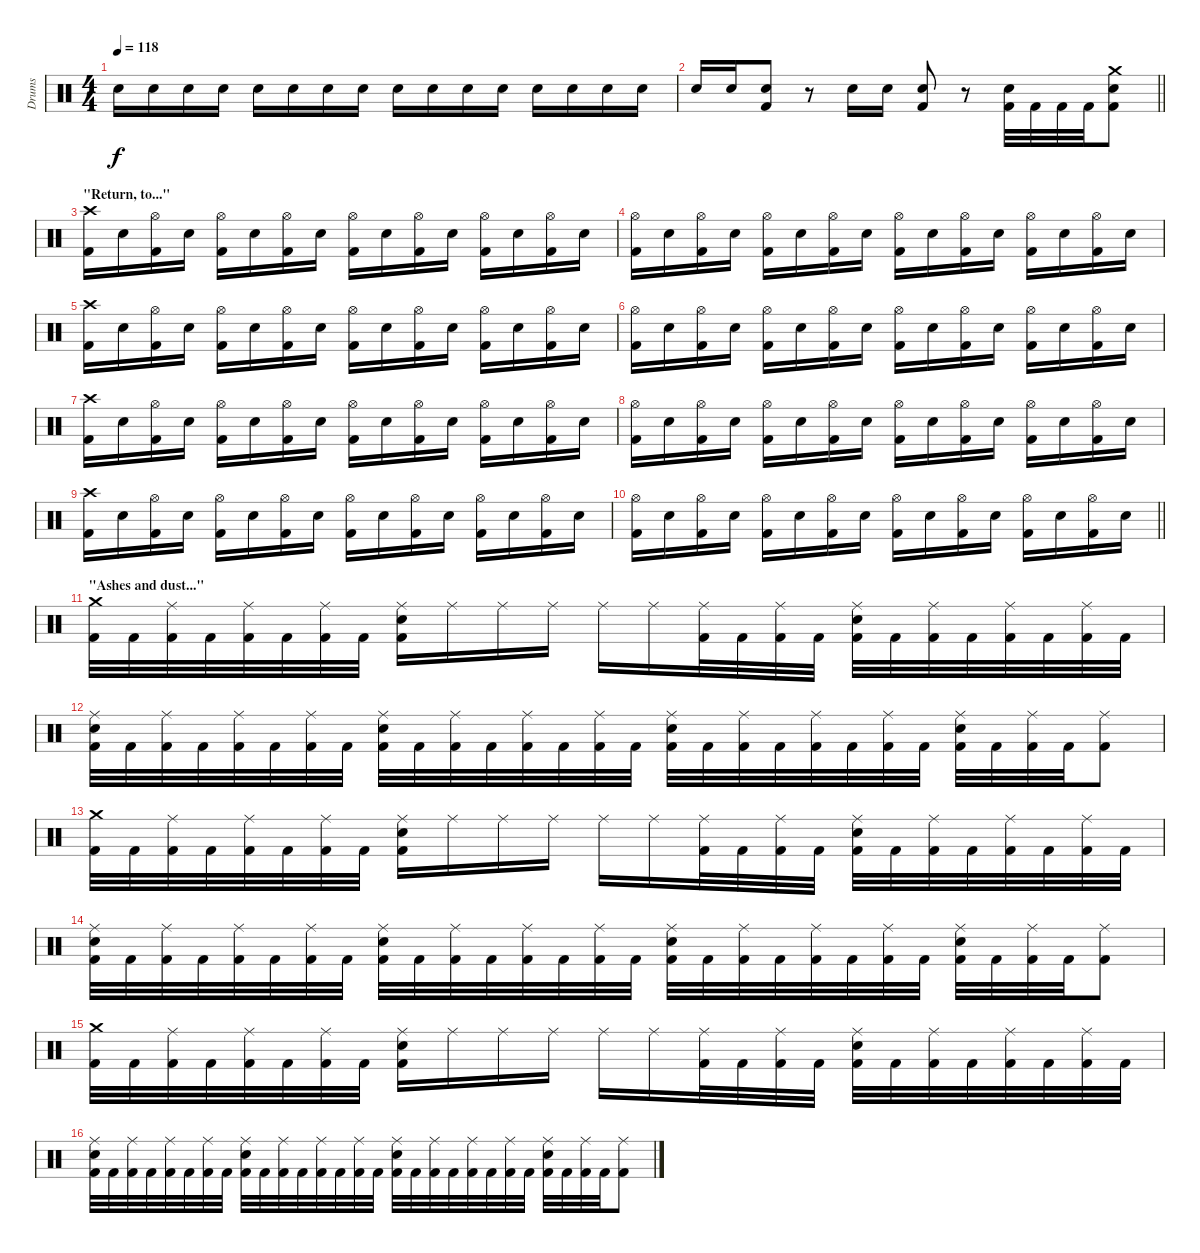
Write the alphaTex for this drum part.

\track ("Drums" "Drums") {instrument percussion}
\staff {score}
\articulation defaults
\ts (4 4)
\section ("" "")
\tempo 118
\clef neutral
\ks c "Electric Snare (hit)".16{dy f} "Electric Snare (hit)".16 "Electric Snare (hit)".16 "Electric Snare (hit)".16 "Electric Snare (hit)".16 "Electric Snare (hit)".16 "Electric Snare (hit)".16 "Electric Snare (hit)".16 "Electric Snare (hit)".16 "Electric Snare (hit)".16 "Electric Snare (hit)".16 "Electric Snare (hit)".16 "Electric Snare (hit)".16 "Electric Snare (hit)".16 "Electric Snare (hit)".16 "Electric Snare (hit)".16
|
\barLineRight lightlight "Electric Snare (hit)".16 "Electric Snare (hit)".16
("Electric Snare (hit)" "Kick (hit) 2").8 r.8 "Electric Snare (hit)".16 "Electric Snare (hit)".16 ("Electric Snare (hit)" "Kick (hit) 2").8 r.8 ("Electric Snare (hit)" "Kick (hit) 2").32 "Kick (hit) 2".32 "Kick (hit) 2".32 "Kick (hit) 2".32 ("Crash medium (hit)" "Electric Snare (hit)" "Kick (hit) 2").8 |
\section ("" "\"Return, to...\"")
("Crash high (hit)" "Kick (hit) 2").16 "Electric Snare (hit)".16 ("Hi-Hat (open)" "Kick (hit) 2").16 "Electric Snare (hit)".16 ("Hi-Hat (open)" "Kick (hit) 2").16 "Electric Snare (hit)".16 ("Hi-Hat (open)" "Kick (hit) 2").16 "Electric Snare (hit)".16 ("Hi-Hat (open)" "Kick (hit) 2").16 "Electric Snare (hit)".16 ("Hi-Hat (open)" "Kick (hit) 2").16 "Electric Snare (hit)".16 ("Hi-Hat (open)" "Kick (hit) 2").16 "Electric Snare (hit)".16 ("Hi-Hat (open)" "Kick (hit) 2").16 "Electric Snare (hit)".16 |
("Hi-Hat (open)" "Kick (hit) 2").16 "Electric Snare (hit)".16 ("Hi-Hat (open)" "Kick (hit) 2").16 "Electric Snare (hit)".16 ("Hi-Hat (open)" "Kick (hit) 2").16 "Electric Snare (hit)".16 ("Hi-Hat (open)" "Kick (hit) 2").16 "Electric Snare (hit)".16 ("Hi-Hat (open)" "Kick (hit) 2").16 "Electric Snare (hit)".16 ("Hi-Hat (open)" "Kick (hit) 2").16 "Electric Snare (hit)".16 ("Hi-Hat (open)" "Kick (hit) 2").16 "Electric Snare (hit)".16 ("Hi-Hat (open)" "Kick (hit) 2").16 "Electric Snare (hit)".16 |
("Crash high (hit)" "Kick (hit) 2").16 "Electric Snare (hit)".16 ("Hi-Hat (open)" "Kick (hit) 2").16 "Electric Snare (hit)".16 ("Hi-Hat (open)" "Kick (hit) 2").16 "Electric Snare (hit)".16 ("Hi-Hat (open)" "Kick (hit) 2").16 "Electric Snare (hit)".16 ("Hi-Hat (open)" "Kick (hit) 2").16 "Electric Snare (hit)".16 ("Hi-Hat (open)" "Kick (hit) 2").16 "Electric Snare (hit)".16 ("Hi-Hat (open)" "Kick (hit) 2").16 "Electric Snare (hit)".16 ("Hi-Hat (open)" "Kick (hit) 2").16 "Electric Snare (hit)".16 |
("Hi-Hat (open)" "Kick (hit) 2").16 "Electric Snare (hit)".16 ("Hi-Hat (open)" "Kick (hit) 2").16 "Electric Snare (hit)".16 ("Hi-Hat (open)" "Kick (hit) 2").16 "Electric Snare (hit)".16 ("Hi-Hat (open)" "Kick (hit) 2").16 "Electric Snare (hit)".16 ("Hi-Hat (open)" "Kick (hit) 2").16 "Electric Snare (hit)".16 ("Hi-Hat (open)" "Kick (hit) 2").16 "Electric Snare (hit)".16 ("Hi-Hat (open)" "Kick (hit) 2").16 "Electric Snare (hit)".16 ("Hi-Hat (open)" "Kick (hit) 2").16 "Electric Snare (hit)".16 |
("Crash high (hit)" "Kick (hit) 2").16 "Electric Snare (hit)".16 ("Hi-Hat (open)" "Kick (hit) 2").16 "Electric Snare (hit)".16 ("Hi-Hat (open)" "Kick (hit) 2").16 "Electric Snare (hit)".16 ("Hi-Hat (open)" "Kick (hit) 2").16 "Electric Snare (hit)".16 ("Hi-Hat (open)" "Kick (hit) 2").16 "Electric Snare (hit)".16 ("Hi-Hat (open)" "Kick (hit) 2").16 "Electric Snare (hit)".16 ("Hi-Hat (open)" "Kick (hit) 2").16 "Electric Snare (hit)".16 ("Hi-Hat (open)" "Kick (hit) 2").16 "Electric Snare (hit)".16 |
("Hi-Hat (open)" "Kick (hit) 2").16 "Electric Snare (hit)".16 ("Hi-Hat (open)" "Kick (hit) 2").16 "Electric Snare (hit)".16 ("Hi-Hat (open)" "Kick (hit) 2").16 "Electric Snare (hit)".16 ("Hi-Hat (open)" "Kick (hit) 2").16 "Electric Snare (hit)".16 ("Hi-Hat (open)" "Kick (hit) 2").16 "Electric Snare (hit)".16 ("Hi-Hat (open)" "Kick (hit) 2").16 "Electric Snare (hit)".16 ("Hi-Hat (open)" "Kick (hit) 2").16 "Electric Snare (hit)".16 ("Hi-Hat (open)" "Kick (hit) 2").16 "Electric Snare (hit)".16 |
("Crash high (hit)" "Kick (hit) 2").16 "Electric Snare (hit)".16 ("Hi-Hat (open)" "Kick (hit) 2").16 "Electric Snare (hit)".16 ("Hi-Hat (open)" "Kick (hit) 2").16 "Electric Snare (hit)".16 ("Hi-Hat (open)" "Kick (hit) 2").16 "Electric Snare (hit)".16 ("Hi-Hat (open)" "Kick (hit) 2").16 "Electric Snare (hit)".16 ("Hi-Hat (open)" "Kick (hit) 2").16 "Electric Snare (hit)".16 ("Hi-Hat (open)" "Kick (hit) 2").16 "Electric Snare (hit)".16 ("Hi-Hat (open)" "Kick (hit) 2").16 "Electric Snare (hit)".16 |
\barLineRight lightlight
("Hi-Hat (open)" "Kick (hit) 2").16 "Electric Snare (hit)".16 ("Hi-Hat (open)" "Kick (hit) 2").16 "Electric Snare (hit)".16 ("Hi-Hat (open)" "Kick (hit) 2").16 "Electric Snare (hit)".16 ("Hi-Hat (open)" "Kick (hit) 2").16 "Electric Snare (hit)".16 ("Hi-Hat (open)" "Kick (hit) 2").16 "Electric Snare (hit)".16 ("Hi-Hat (open)" "Kick (hit) 2").16 "Electric Snare (hit)".16 ("Hi-Hat (open)" "Kick (hit) 2").16 "Electric Snare (hit)".16 ("Hi-Hat (open)" "Kick (hit) 2").16 "Electric Snare (hit)".16 |
\section ("" "\"Ashes and dust...\"")
("Crash medium (hit)" "Kick (hit) 2").32 "Kick (hit) 2".32 ("Ride (middle)" "Kick (hit) 2").32 "Kick (hit) 2".32 ("Ride (middle)" "Kick (hit) 2").32 "Kick (hit) 2".32 ("Ride (middle)" "Kick (hit) 2").32 "Kick (hit) 2".32 ("Ride (middle)" "Electric Snare (hit)" "Kick (hit) 2").16 "Ride (middle)".16 "Ride (middle)".16 "Ride (middle)".16 "Ride (middle)".16 "Ride (middle)".16 ("Ride (middle)" "Kick (hit) 2").32 "Kick (hit) 2".32 ("Ride (middle)" "Kick (hit) 2").32 "Kick (hit) 2".32 ("Ride (middle)" "Electric Snare (hit)" "Kick (hit) 2").32 "Kick (hit) 2".32 ("Ride (middle)" "Kick (hit) 2").32 "Kick (hit) 2".32 ("Ride (middle)" "Kick (hit) 2").32 "Kick (hit) 2".32 ("Ride (middle)" "Kick (hit) 2").32 "Kick (hit) 2".32 |
("Ride (middle)" "Electric Snare (hit)" "Kick (hit) 2").32 "Kick (hit) 2".32 ("Ride (middle)" "Kick (hit) 2").32 "Kick (hit) 2".32 ("Ride (middle)" "Kick (hit) 2").32 "Kick (hit) 2".32 ("Ride (middle)" "Kick (hit) 2").32 "Kick (hit) 2".32 ("Ride (middle)" "Electric Snare (hit)" "Kick (hit) 2").32 "Kick (hit) 2".32 ("Ride (middle)" "Kick (hit) 2").32 "Kick (hit) 2".32 ("Ride (middle)" "Kick (hit) 2").32 "Kick (hit) 2".32 ("Ride (middle)" "Kick (hit) 2").32 "Kick (hit) 2".32 ("Ride (middle)" "Electric Snare (hit)" "Kick (hit) 2").32 "Kick (hit) 2".32 ("Ride (middle)" "Kick (hit) 2").32 "Kick (hit) 2".32 ("Ride (middle)" "Kick (hit) 2").32 "Kick (hit) 2".32 ("Ride (middle)" "Kick (hit) 2").32 "Kick (hit) 2".32 ("Ride (middle)" "Electric Snare (hit)" "Kick (hit) 2").32 "Kick (hit) 2".32 ("Ride (middle)" "Kick (hit) 2").32 "Kick (hit) 2".32 ("Ride (middle)" "Kick (hit) 2").8 |
("Crash medium (hit)" "Kick (hit) 2").32 "Kick (hit) 2".32 ("Ride (middle)" "Kick (hit) 2").32 "Kick (hit) 2".32 ("Ride (middle)" "Kick (hit) 2").32 "Kick (hit) 2".32 ("Ride (middle)" "Kick (hit) 2").32 "Kick (hit) 2".32 ("Ride (middle)" "Electric Snare (hit)" "Kick (hit) 2").16 "Ride (middle)".16 "Ride (middle)".16 "Ride (middle)".16 "Ride (middle)".16 "Ride (middle)".16 ("Ride (middle)" "Kick (hit) 2").32 "Kick (hit) 2".32 ("Ride (middle)" "Kick (hit) 2").32 "Kick (hit) 2".32 ("Ride (middle)" "Electric Snare (hit)" "Kick (hit) 2").32 "Kick (hit) 2".32 ("Ride (middle)" "Kick (hit) 2").32 "Kick (hit) 2".32 ("Ride (middle)" "Kick (hit) 2").32 "Kick (hit) 2".32 ("Ride (middle)" "Kick (hit) 2").32 "Kick (hit) 2".32 |
("Ride (middle)" "Electric Snare (hit)" "Kick (hit) 2").32 "Kick (hit) 2".32 ("Ride (middle)" "Kick (hit) 2").32 "Kick (hit) 2".32 ("Ride (middle)" "Kick (hit) 2").32 "Kick (hit) 2".32 ("Ride (middle)" "Kick (hit) 2").32 "Kick (hit) 2".32 ("Ride (middle)" "Electric Snare (hit)" "Kick (hit) 2").32 "Kick (hit) 2".32 ("Ride (middle)" "Kick (hit) 2").32 "Kick (hit) 2".32 ("Ride (middle)" "Kick (hit) 2").32 "Kick (hit) 2".32 ("Ride (middle)" "Kick (hit) 2").32 "Kick (hit) 2".32 ("Ride (middle)" "Electric Snare (hit)" "Kick (hit) 2").32 "Kick (hit) 2".32 ("Ride (middle)" "Kick (hit) 2").32 "Kick (hit) 2".32 ("Ride (middle)" "Kick (hit) 2").32 "Kick (hit) 2".32 ("Ride (middle)" "Kick (hit) 2").32 "Kick (hit) 2".32 ("Ride (middle)" "Electric Snare (hit)" "Kick (hit) 2").32 "Kick (hit) 2".32 ("Ride (middle)" "Kick (hit) 2").32 "Kick (hit) 2".32 ("Ride (middle)" "Kick (hit) 2").8 |
("Crash medium (hit)" "Kick (hit) 2").32 "Kick (hit) 2".32 ("Ride (middle)" "Kick (hit) 2").32 "Kick (hit) 2".32 ("Ride (middle)" "Kick (hit) 2").32 "Kick (hit) 2".32 ("Ride (middle)" "Kick (hit) 2").32 "Kick (hit) 2".32 ("Ride (middle)" "Electric Snare (hit)" "Kick (hit) 2").16 "Ride (middle)".16 "Ride (middle)".16 "Ride (middle)".16 "Ride (middle)".16 "Ride (middle)".16 ("Ride (middle)" "Kick (hit) 2").32 "Kick (hit) 2".32 ("Ride (middle)" "Kick (hit) 2").32 "Kick (hit) 2".32 ("Ride (middle)" "Electric Snare (hit)" "Kick (hit) 2").32 "Kick (hit) 2".32 ("Ride (middle)" "Kick (hit) 2").32 "Kick (hit) 2".32 ("Ride (middle)" "Kick (hit) 2").32 "Kick (hit) 2".32 ("Ride (middle)" "Kick (hit) 2").32 "Kick (hit) 2".32 |
("Ride (middle)" "Electric Snare (hit)" "Kick (hit) 2").32 "Kick (hit) 2".32 ("Ride (middle)" "Kick (hit) 2").32 "Kick (hit) 2".32 ("Ride (middle)" "Kick (hit) 2").32 "Kick (hit) 2".32 ("Ride (middle)" "Kick (hit) 2").32 "Kick (hit) 2".32 ("Ride (middle)" "Electric Snare (hit)" "Kick (hit) 2").32 "Kick (hit) 2".32 ("Ride (middle)" "Kick (hit) 2").32 "Kick (hit) 2".32 ("Ride (middle)" "Kick (hit) 2").32 "Kick (hit) 2".32 ("Ride (middle)" "Kick (hit) 2").32 "Kick (hit) 2".32 ("Ride (middle)" "Electric Snare (hit)" "Kick (hit) 2").32 "Kick (hit) 2".32 ("Ride (middle)" "Kick (hit) 2").32 "Kick (hit) 2".32 ("Ride (middle)" "Kick (hit) 2").32 "Kick (hit) 2".32 ("Ride (middle)" "Kick (hit) 2").32 "Kick (hit) 2".32 ("Ride (middle)" "Electric Snare (hit)" "Kick (hit) 2").32 "Kick (hit) 2".32 ("Ride (middle)" "Kick (hit) 2").32 "Kick (hit) 2".32 ("Ride (middle)" "Kick (hit) 2").8
